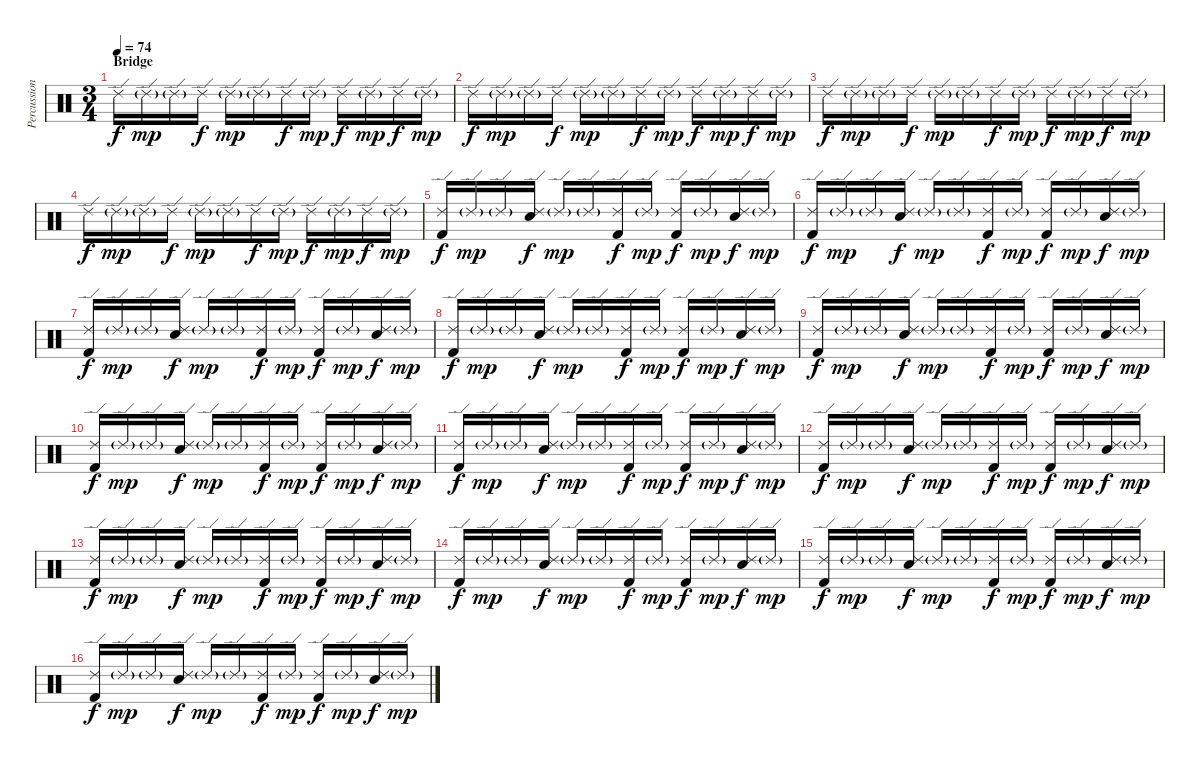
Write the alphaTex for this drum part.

\track ("Percussion" "Percussion") {instrument percussion}
\staff {score}
\articulation defaults
\ts (3 4)
\section ("" "Bridge")
\tempo 74
\clef neutral
\ks c "Ride (edge) 2".16{dy f} "Ride (edge) 2"{g}.16{dy mp} "Ride (edge) 2"{g}.16 "Ride (edge) 2".16{dy f} "Ride (edge) 2"{g}.16{dy mp} "Ride (edge) 2"{g}.16 "Ride (edge) 2".16{dy f} "Ride (edge) 2"{g}.16{dy mp} "Ride (edge) 2".16{dy f} "Ride (edge) 2"{g}.16{dy mp} "Ride (edge) 2".16{dy f} "Ride (edge) 2"{g}.16{dy mp}
|
"Ride (edge) 2".16{dy f} "Ride (edge) 2"{g}.16{dy mp} "Ride (edge) 2"{g}.16 "Ride (edge) 2".16{dy f} "Ride (edge) 2"{g}.16{dy mp} "Ride (edge) 2"{g}.16 "Ride (edge) 2".16{dy f} "Ride (edge) 2"{g}.16{dy mp} "Ride (edge) 2".16{dy f} "Ride (edge) 2"{g}.16{dy mp} "Ride (edge) 2".16{dy f} "Ride (edge) 2"{g}.16{dy mp} |
"Ride (edge) 2".16{dy f} "Ride (edge) 2"{g}.16{dy mp} "Ride (edge) 2"{g}.16 "Ride (edge) 2".16{dy f} "Ride (edge) 2"{g}.16{dy mp} "Ride (edge) 2"{g}.16 "Ride (edge) 2".16{dy f} "Ride (edge) 2"{g}.16{dy mp} "Ride (edge) 2".16{dy f} "Ride (edge) 2"{g}.16{dy mp} "Ride (edge) 2".16{dy f} "Ride (edge) 2"{g}.16{dy mp} |
"Ride (edge) 2".16{dy f} "Ride (edge) 2"{g}.16{dy mp} "Ride (edge) 2"{g}.16 "Ride (edge) 2".16{dy f} "Ride (edge) 2"{g}.16{dy mp} "Ride (edge) 2"{g}.16 "Ride (edge) 2".16{dy f} "Ride (edge) 2"{g}.16{dy mp} "Ride (edge) 2".16{dy f} "Ride (edge) 2"{g}.16{dy mp} "Ride (edge) 2".16{dy f} "Ride (edge) 2"{g}.16{dy mp} |
("Ride (edge) 2" "Kick (hit) 2").16{dy f} "Ride (edge) 2"{g}.16{dy mp} "Ride (edge) 2"{g}.16 ("Ride (edge) 2" "Electric Snare (hit)").16{dy f} "Ride (edge) 2"{g}.16{dy mp} "Ride (edge) 2"{g}.16 ("Ride (edge) 2" "Kick (hit) 2").16{dy f} "Ride (edge) 2"{g}.16{dy mp} ("Ride (edge) 2" "Kick (hit) 2").16{dy f} "Ride (edge) 2"{g}.16{dy mp} ("Ride (edge) 2" "Electric Snare (hit)").16{dy f} "Ride (edge) 2"{g}.16{dy mp} |
("Ride (edge) 2" "Kick (hit) 2").16{dy f} "Ride (edge) 2"{g}.16{dy mp} "Ride (edge) 2"{g}.16 ("Ride (edge) 2" "Electric Snare (hit)").16{dy f} "Ride (edge) 2"{g}.16{dy mp} "Ride (edge) 2"{g}.16 ("Ride (edge) 2" "Kick (hit) 2").16{dy f} "Ride (edge) 2"{g}.16{dy mp} ("Ride (edge) 2" "Kick (hit) 2").16{dy f} "Ride (edge) 2"{g}.16{dy mp} ("Ride (edge) 2" "Electric Snare (hit)").16{dy f} "Ride (edge) 2"{g}.16{dy mp} |
("Ride (edge) 2" "Kick (hit) 2").16{dy f} "Ride (edge) 2"{g}.16{dy mp} "Ride (edge) 2"{g}.16 ("Ride (edge) 2" "Electric Snare (hit)").16{dy f} "Ride (edge) 2"{g}.16{dy mp} "Ride (edge) 2"{g}.16 ("Ride (edge) 2" "Kick (hit) 2").16{dy f} "Ride (edge) 2"{g}.16{dy mp} ("Ride (edge) 2" "Kick (hit) 2").16{dy f} "Ride (edge) 2"{g}.16{dy mp} ("Ride (edge) 2" "Electric Snare (hit)").16{dy f} "Ride (edge) 2"{g}.16{dy mp} |
("Ride (edge) 2" "Kick (hit) 2").16{dy f} "Ride (edge) 2"{g}.16{dy mp} "Ride (edge) 2"{g}.16 ("Ride (edge) 2" "Electric Snare (hit)").16{dy f} "Ride (edge) 2"{g}.16{dy mp} "Ride (edge) 2"{g}.16 ("Ride (edge) 2" "Kick (hit) 2").16{dy f} "Ride (edge) 2"{g}.16{dy mp} ("Ride (edge) 2" "Kick (hit) 2").16{dy f} "Ride (edge) 2"{g}.16{dy mp} ("Ride (edge) 2" "Electric Snare (hit)").16{dy f} "Ride (edge) 2"{g}.16{dy mp} |
("Ride (edge) 2" "Kick (hit) 2").16{dy f} "Ride (edge) 2"{g}.16{dy mp} "Ride (edge) 2"{g}.16 ("Ride (edge) 2" "Electric Snare (hit)").16{dy f} "Ride (edge) 2"{g}.16{dy mp} "Ride (edge) 2"{g}.16 ("Ride (edge) 2" "Kick (hit) 2").16{dy f} "Ride (edge) 2"{g}.16{dy mp} ("Ride (edge) 2" "Kick (hit) 2").16{dy f} "Ride (edge) 2"{g}.16{dy mp} ("Ride (edge) 2" "Electric Snare (hit)").16{dy f} "Ride (edge) 2"{g}.16{dy mp} |
("Ride (edge) 2" "Kick (hit) 2").16{dy f} "Ride (edge) 2"{g}.16{dy mp} "Ride (edge) 2"{g}.16 ("Ride (edge) 2" "Electric Snare (hit)").16{dy f} "Ride (edge) 2"{g}.16{dy mp} "Ride (edge) 2"{g}.16 ("Ride (edge) 2" "Kick (hit) 2").16{dy f} "Ride (edge) 2"{g}.16{dy mp} ("Ride (edge) 2" "Kick (hit) 2").16{dy f} "Ride (edge) 2"{g}.16{dy mp} ("Ride (edge) 2" "Electric Snare (hit)").16{dy f} "Ride (edge) 2"{g}.16{dy mp} |
("Ride (edge) 2" "Kick (hit) 2").16{dy f} "Ride (edge) 2"{g}.16{dy mp} "Ride (edge) 2"{g}.16 ("Ride (edge) 2" "Electric Snare (hit)").16{dy f} "Ride (edge) 2"{g}.16{dy mp} "Ride (edge) 2"{g}.16 ("Ride (edge) 2" "Kick (hit) 2").16{dy f} "Ride (edge) 2"{g}.16{dy mp} ("Ride (edge) 2" "Kick (hit) 2").16{dy f} "Ride (edge) 2"{g}.16{dy mp} ("Ride (edge) 2" "Electric Snare (hit)").16{dy f} "Ride (edge) 2"{g}.16{dy mp} |
("Ride (edge) 2" "Kick (hit) 2").16{dy f} "Ride (edge) 2"{g}.16{dy mp} "Ride (edge) 2"{g}.16 ("Ride (edge) 2" "Electric Snare (hit)").16{dy f} "Ride (edge) 2"{g}.16{dy mp} "Ride (edge) 2"{g}.16 ("Ride (edge) 2" "Kick (hit) 2").16{dy f} "Ride (edge) 2"{g}.16{dy mp} ("Ride (edge) 2" "Kick (hit) 2").16{dy f} "Ride (edge) 2"{g}.16{dy mp} ("Ride (edge) 2" "Electric Snare (hit)").16{dy f} "Ride (edge) 2"{g}.16{dy mp} |
("Ride (edge) 2" "Kick (hit) 2").16{dy f} "Ride (edge) 2"{g}.16{dy mp} "Ride (edge) 2"{g}.16 ("Ride (edge) 2" "Electric Snare (hit)").16{dy f} "Ride (edge) 2"{g}.16{dy mp} "Ride (edge) 2"{g}.16 ("Ride (edge) 2" "Kick (hit) 2").16{dy f} "Ride (edge) 2"{g}.16{dy mp} ("Ride (edge) 2" "Kick (hit) 2").16{dy f} "Ride (edge) 2"{g}.16{dy mp} ("Ride (edge) 2" "Electric Snare (hit)").16{dy f} "Ride (edge) 2"{g}.16{dy mp} |
("Ride (edge) 2" "Kick (hit) 2").16{dy f} "Ride (edge) 2"{g}.16{dy mp} "Ride (edge) 2"{g}.16 ("Ride (edge) 2" "Electric Snare (hit)").16{dy f} "Ride (edge) 2"{g}.16{dy mp} "Ride (edge) 2"{g}.16 ("Ride (edge) 2" "Kick (hit) 2").16{dy f} "Ride (edge) 2"{g}.16{dy mp} ("Ride (edge) 2" "Kick (hit) 2").16{dy f} "Ride (edge) 2"{g}.16{dy mp} ("Ride (edge) 2" "Electric Snare (hit)").16{dy f} "Ride (edge) 2"{g}.16{dy mp} |
("Ride (edge) 2" "Kick (hit) 2").16{dy f} "Ride (edge) 2"{g}.16{dy mp} "Ride (edge) 2"{g}.16 ("Ride (edge) 2" "Electric Snare (hit)").16{dy f} "Ride (edge) 2"{g}.16{dy mp} "Ride (edge) 2"{g}.16 ("Ride (edge) 2" "Kick (hit) 2").16{dy f} "Ride (edge) 2"{g}.16{dy mp} ("Ride (edge) 2" "Kick (hit) 2").16{dy f} "Ride (edge) 2"{g}.16{dy mp} ("Ride (edge) 2" "Electric Snare (hit)").16{dy f} "Ride (edge) 2"{g}.16{dy mp} |
("Ride (edge) 2" "Kick (hit) 2").16{dy f} "Ride (edge) 2"{g}.16{dy mp} "Ride (edge) 2"{g}.16 ("Ride (edge) 2" "Electric Snare (hit)").16{dy f} "Ride (edge) 2"{g}.16{dy mp} "Ride (edge) 2"{g}.16 ("Ride (edge) 2" "Kick (hit) 2").16{dy f} "Ride (edge) 2"{g}.16{dy mp} ("Ride (edge) 2" "Kick (hit) 2").16{dy f} "Ride (edge) 2"{g}.16{dy mp} ("Ride (edge) 2" "Electric Snare (hit)").16{dy f} "Ride (edge) 2"{g}.16{dy mp}
